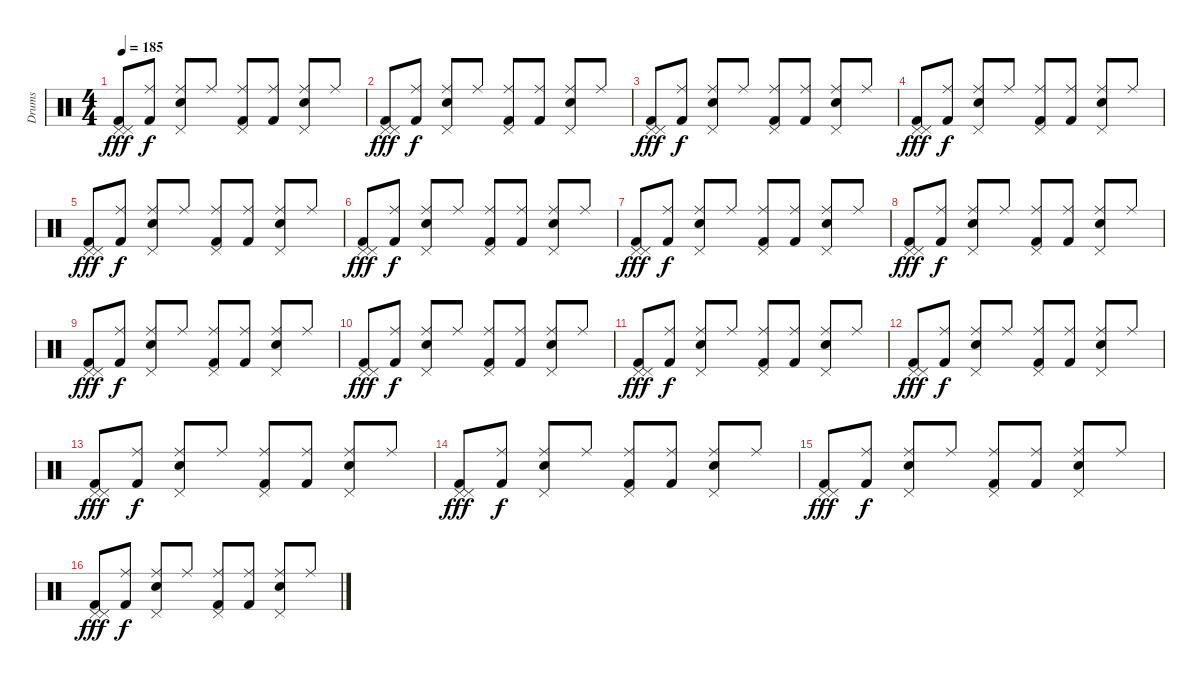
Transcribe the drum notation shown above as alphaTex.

\track ("Drums" "Drums") {instrument percussion}
\staff {score}
\articulation defaults
\ts (4 4)
\tempo 185
\clef neutral
\ks c
("Pedal Hi-Hat (hit)" "Pedal Hi-Hat (hit)" "Kick (hit) 2").8{dy fff} ("Ride (middle)" "Kick (hit) 2").8{dy f} ("Pedal Hi-Hat (hit)" "Ride (middle)" "Snare (hit) 2").8 "Ride (middle)".8 ("Pedal Hi-Hat (hit)" "Ride (middle)" "Kick (hit) 2").8 ("Ride (middle)" "Kick (hit) 2").8 ("Pedal Hi-Hat (hit)" "Ride (middle)" "Snare (hit) 2").8 "Ride (middle)".8 |
("Pedal Hi-Hat (hit)" "Pedal Hi-Hat (hit)" "Kick (hit) 2").8{dy fff} ("Ride (middle)" "Kick (hit) 2").8{dy f} ("Pedal Hi-Hat (hit)" "Ride (middle)" "Snare (hit) 2").8 "Ride (middle)".8 ("Pedal Hi-Hat (hit)" "Ride (middle)" "Kick (hit) 2").8 ("Ride (middle)" "Kick (hit) 2").8 ("Pedal Hi-Hat (hit)" "Ride (middle)" "Snare (hit) 2").8 "Ride (middle)".8 |
("Pedal Hi-Hat (hit)" "Pedal Hi-Hat (hit)" "Kick (hit) 2").8{dy fff} ("Ride (middle)" "Kick (hit) 2").8{dy f} ("Pedal Hi-Hat (hit)" "Ride (middle)" "Snare (hit) 2").8 "Ride (middle)".8 ("Pedal Hi-Hat (hit)" "Ride (middle)" "Kick (hit) 2").8 ("Ride (middle)" "Kick (hit) 2").8 ("Pedal Hi-Hat (hit)" "Ride (middle)" "Snare (hit) 2").8 "Ride (middle)".8 |
("Pedal Hi-Hat (hit)" "Pedal Hi-Hat (hit)" "Kick (hit) 2").8{dy fff} ("Ride (middle)" "Kick (hit) 2").8{dy f} ("Pedal Hi-Hat (hit)" "Ride (middle)" "Snare (hit) 2").8 "Ride (middle)".8 ("Pedal Hi-Hat (hit)" "Ride (middle)" "Kick (hit) 2").8 ("Ride (middle)" "Kick (hit) 2").8 ("Pedal Hi-Hat (hit)" "Ride (middle)" "Snare (hit) 2").8 "Ride (middle)".8 |
("Pedal Hi-Hat (hit)" "Pedal Hi-Hat (hit)" "Kick (hit) 2").8{dy fff} ("Ride (middle)" "Kick (hit) 2").8{dy f} ("Pedal Hi-Hat (hit)" "Ride (middle)" "Snare (hit) 2").8 "Ride (middle)".8 ("Pedal Hi-Hat (hit)" "Ride (middle)" "Kick (hit) 2").8 ("Ride (middle)" "Kick (hit) 2").8 ("Pedal Hi-Hat (hit)" "Ride (middle)" "Snare (hit) 2").8 "Ride (middle)".8 |
("Pedal Hi-Hat (hit)" "Pedal Hi-Hat (hit)" "Kick (hit) 2").8{dy fff} ("Ride (middle)" "Kick (hit) 2").8{dy f} ("Pedal Hi-Hat (hit)" "Ride (middle)" "Snare (hit) 2").8 "Ride (middle)".8 ("Pedal Hi-Hat (hit)" "Ride (middle)" "Kick (hit) 2").8 ("Ride (middle)" "Kick (hit) 2").8 ("Pedal Hi-Hat (hit)" "Ride (middle)" "Snare (hit) 2").8 "Ride (middle)".8 |
("Pedal Hi-Hat (hit)" "Pedal Hi-Hat (hit)" "Kick (hit) 2").8{dy fff} ("Ride (middle)" "Kick (hit) 2").8{dy f} ("Pedal Hi-Hat (hit)" "Ride (middle)" "Snare (hit) 2").8 "Ride (middle)".8 ("Pedal Hi-Hat (hit)" "Ride (middle)" "Kick (hit) 2").8 ("Ride (middle)" "Kick (hit) 2").8 ("Pedal Hi-Hat (hit)" "Ride (middle)" "Snare (hit) 2").8 "Ride (middle)".8 |
("Pedal Hi-Hat (hit)" "Pedal Hi-Hat (hit)" "Kick (hit) 2").8{dy fff} ("Ride (middle)" "Kick (hit) 2").8{dy f} ("Pedal Hi-Hat (hit)" "Ride (middle)" "Snare (hit) 2").8 "Ride (middle)".8 ("Pedal Hi-Hat (hit)" "Ride (middle)" "Kick (hit) 2").8 ("Ride (middle)" "Kick (hit) 2").8 ("Pedal Hi-Hat (hit)" "Ride (middle)" "Snare (hit) 2").8 "Ride (middle)".8 |
("Pedal Hi-Hat (hit)" "Pedal Hi-Hat (hit)" "Kick (hit) 2").8{dy fff} ("Ride (middle)" "Kick (hit) 2").8{dy f} ("Pedal Hi-Hat (hit)" "Ride (middle)" "Snare (hit) 2").8 "Ride (middle)".8 ("Pedal Hi-Hat (hit)" "Ride (middle)" "Kick (hit) 2").8 ("Ride (middle)" "Kick (hit) 2").8 ("Pedal Hi-Hat (hit)" "Ride (middle)" "Snare (hit) 2").8 "Ride (middle)".8 |
("Pedal Hi-Hat (hit)" "Pedal Hi-Hat (hit)" "Kick (hit) 2").8{dy fff} ("Ride (middle)" "Kick (hit) 2").8{dy f} ("Pedal Hi-Hat (hit)" "Ride (middle)" "Snare (hit) 2").8 "Ride (middle)".8 ("Pedal Hi-Hat (hit)" "Ride (middle)" "Kick (hit) 2").8 ("Ride (middle)" "Kick (hit) 2").8 ("Pedal Hi-Hat (hit)" "Ride (middle)" "Snare (hit) 2").8 "Ride (middle)".8 |
("Pedal Hi-Hat (hit)" "Pedal Hi-Hat (hit)" "Kick (hit) 2").8{dy fff} ("Ride (middle)" "Kick (hit) 2").8{dy f} ("Pedal Hi-Hat (hit)" "Ride (middle)" "Snare (hit) 2").8 "Ride (middle)".8 ("Pedal Hi-Hat (hit)" "Ride (middle)" "Kick (hit) 2").8 ("Ride (middle)" "Kick (hit) 2").8 ("Pedal Hi-Hat (hit)" "Ride (middle)" "Snare (hit) 2").8 "Ride (middle)".8 |
("Pedal Hi-Hat (hit)" "Pedal Hi-Hat (hit)" "Kick (hit) 2").8{dy fff} ("Ride (middle)" "Kick (hit) 2").8{dy f} ("Pedal Hi-Hat (hit)" "Ride (middle)" "Snare (hit) 2").8 "Ride (middle)".8 ("Pedal Hi-Hat (hit)" "Ride (middle)" "Kick (hit) 2").8 ("Ride (middle)" "Kick (hit) 2").8 ("Pedal Hi-Hat (hit)" "Ride (middle)" "Snare (hit) 2").8 "Ride (middle)".8 |
("Pedal Hi-Hat (hit)" "Pedal Hi-Hat (hit)" "Kick (hit) 2").8{dy fff} ("Ride (middle)" "Kick (hit) 2").8{dy f} ("Pedal Hi-Hat (hit)" "Ride (middle)" "Snare (hit) 2").8 "Ride (middle)".8 ("Pedal Hi-Hat (hit)" "Ride (middle)" "Kick (hit) 2").8 ("Ride (middle)" "Kick (hit) 2").8 ("Pedal Hi-Hat (hit)" "Ride (middle)" "Snare (hit) 2").8 "Ride (middle)".8 |
("Pedal Hi-Hat (hit)" "Pedal Hi-Hat (hit)" "Kick (hit) 2").8{dy fff} ("Ride (middle)" "Kick (hit) 2").8{dy f} ("Pedal Hi-Hat (hit)" "Ride (middle)" "Snare (hit) 2").8 "Ride (middle)".8 ("Pedal Hi-Hat (hit)" "Ride (middle)" "Kick (hit) 2").8 ("Ride (middle)" "Kick (hit) 2").8 ("Pedal Hi-Hat (hit)" "Ride (middle)" "Snare (hit) 2").8 "Ride (middle)".8 |
("Pedal Hi-Hat (hit)" "Pedal Hi-Hat (hit)" "Kick (hit) 2").8{dy fff} ("Ride (middle)" "Kick (hit) 2").8{dy f} ("Pedal Hi-Hat (hit)" "Ride (middle)" "Snare (hit) 2").8 "Ride (middle)".8 ("Pedal Hi-Hat (hit)" "Ride (middle)" "Kick (hit) 2").8 ("Ride (middle)" "Kick (hit) 2").8 ("Pedal Hi-Hat (hit)" "Ride (middle)" "Snare (hit) 2").8 "Ride (middle)".8 |
("Pedal Hi-Hat (hit)" "Pedal Hi-Hat (hit)" "Kick (hit) 2").8{dy fff} ("Ride (middle)" "Kick (hit) 2").8{dy f} ("Pedal Hi-Hat (hit)" "Ride (middle)" "Snare (hit) 2").8 "Ride (middle)".8 ("Pedal Hi-Hat (hit)" "Ride (middle)" "Kick (hit) 2").8 ("Ride (middle)" "Kick (hit) 2").8 ("Pedal Hi-Hat (hit)" "Ride (middle)" "Snare (hit) 2").8 "Ride (middle)".8
